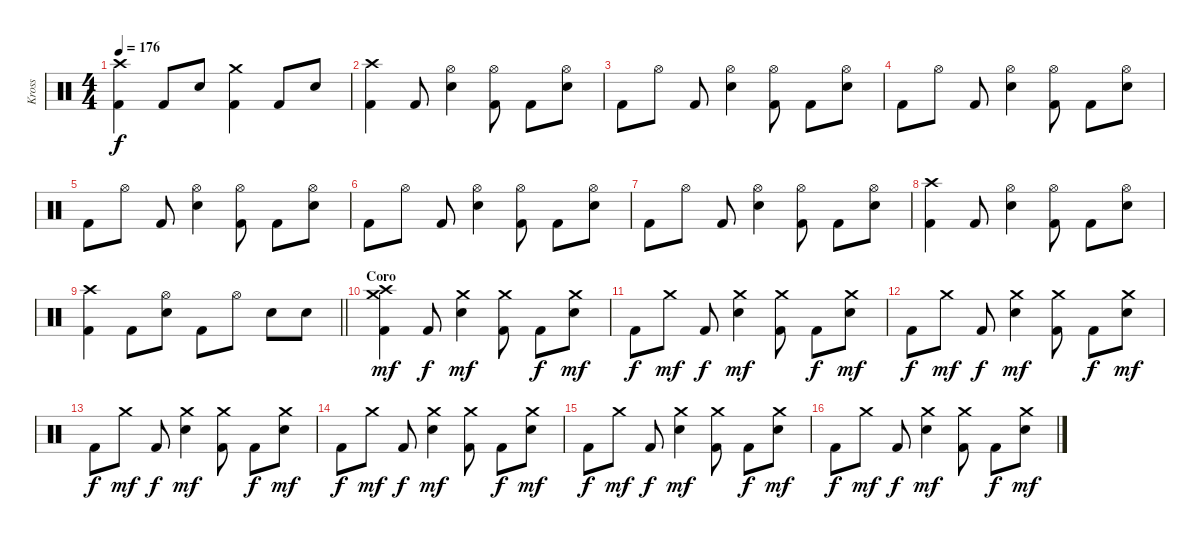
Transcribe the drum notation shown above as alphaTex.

\track ("Kross" "Kross") {instrument percussion}
\staff {score}
\articulation defaults
\ts (4 4)
\tempo 176
\clef neutral
\ks c
("Crash high (hit)" "Kick (hit) 2").4{dy f} "Kick (hit) 2".8 "Electric Snare (hit)".8 ("Crash medium (hit)" "Kick (hit) 2").4 "Kick (hit) 2".8 "Electric Snare (hit)".8 |
("Crash high (hit)" "Kick (hit) 2").4 "Kick (hit) 2".8 ("Hi-Hat (open)" "Electric Snare (hit)").4 ("Hi-Hat (open)" "Kick (hit) 2").8 "Kick (hit) 2".8 ("Hi-Hat (open)" "Electric Snare (hit)").8 |
"Kick (hit) 2".8 "Hi-Hat (open)".8 "Kick (hit) 2".8 ("Hi-Hat (open)" "Electric Snare (hit)").4 ("Hi-Hat (open)" "Kick (hit) 2").8 "Kick (hit) 2".8 ("Hi-Hat (open)" "Electric Snare (hit)").8 |
"Kick (hit) 2".8 "Hi-Hat (open)".8 "Kick (hit) 2".8 ("Hi-Hat (open)" "Electric Snare (hit)").4 ("Hi-Hat (open)" "Kick (hit) 2").8 "Kick (hit) 2".8 ("Hi-Hat (open)" "Electric Snare (hit)").8 |
"Kick (hit) 2".8 "Hi-Hat (open)".8 "Kick (hit) 2".8 ("Hi-Hat (open)" "Electric Snare (hit)").4 ("Hi-Hat (open)" "Kick (hit) 2").8 "Kick (hit) 2".8 ("Hi-Hat (open)" "Electric Snare (hit)").8 |
"Kick (hit) 2".8 "Hi-Hat (open)".8 "Kick (hit) 2".8 ("Hi-Hat (open)" "Electric Snare (hit)").4 ("Hi-Hat (open)" "Kick (hit) 2").8 "Kick (hit) 2".8 ("Hi-Hat (open)" "Electric Snare (hit)").8 |
"Kick (hit) 2".8 "Hi-Hat (open)".8 "Kick (hit) 2".8 ("Hi-Hat (open)" "Electric Snare (hit)").4 ("Hi-Hat (open)" "Kick (hit) 2").8 "Kick (hit) 2".8 ("Hi-Hat (open)" "Electric Snare (hit)").8 |
("Crash high (hit)" "Kick (hit) 2").4 "Kick (hit) 2".8 ("Hi-Hat (open)" "Electric Snare (hit)").4 ("Hi-Hat (open)" "Kick (hit) 2").8 "Kick (hit) 2".8 ("Hi-Hat (open)" "Electric Snare (hit)").8 |
\barLineRight lightlight
("Crash high (hit)" "Kick (hit) 2").4 "Kick (hit) 2".8 ("Hi-Hat (open)" "Electric Snare (hit)").8 "Kick (hit) 2".8 "Hi-Hat (open)".8 "Electric Snare (hit)".8 "Electric Snare (hit)".8 |
\section ("" "Coro")
("Crash medium (hit)" "Crash high (hit)" "Kick (hit) 2").4{dy mf} "Kick (hit) 2".8{dy f} ("Crash medium (hit)" "Electric Snare (hit)").4{dy mf} ("Crash medium (hit)" "Kick (hit) 2").8 "Kick (hit) 2".8{dy f} ("Crash medium (hit)" "Electric Snare (hit)").8{dy mf} |
"Kick (hit) 2".8{dy f} "Crash medium (hit)".8{dy mf} "Kick (hit) 2".8{dy f} ("Crash medium (hit)" "Electric Snare (hit)").4{dy mf} ("Crash medium (hit)" "Kick (hit) 2").8 "Kick (hit) 2".8{dy f} ("Crash medium (hit)" "Electric Snare (hit)").8{dy mf} |
"Kick (hit) 2".8{dy f} "Crash medium (hit)".8{dy mf} "Kick (hit) 2".8{dy f} ("Crash medium (hit)" "Electric Snare (hit)").4{dy mf} ("Crash medium (hit)" "Kick (hit) 2").8 "Kick (hit) 2".8{dy f} ("Crash medium (hit)" "Electric Snare (hit)").8{dy mf} |
"Kick (hit) 2".8{dy f} "Crash medium (hit)".8{dy mf} "Kick (hit) 2".8{dy f} ("Crash medium (hit)" "Electric Snare (hit)").4{dy mf} ("Crash medium (hit)" "Kick (hit) 2").8 "Kick (hit) 2".8{dy f} ("Crash medium (hit)" "Electric Snare (hit)").8{dy mf} |
"Kick (hit) 2".8{dy f} "Crash medium (hit)".8{dy mf} "Kick (hit) 2".8{dy f} ("Crash medium (hit)" "Electric Snare (hit)").4{dy mf} ("Crash medium (hit)" "Kick (hit) 2").8 "Kick (hit) 2".8{dy f} ("Crash medium (hit)" "Electric Snare (hit)").8{dy mf} |
"Kick (hit) 2".8{dy f} "Crash medium (hit)".8{dy mf} "Kick (hit) 2".8{dy f} ("Crash medium (hit)" "Electric Snare (hit)").4{dy mf} ("Crash medium (hit)" "Kick (hit) 2").8 "Kick (hit) 2".8{dy f} ("Crash medium (hit)" "Electric Snare (hit)").8{dy mf} |
"Kick (hit) 2".8{dy f} "Crash medium (hit)".8{dy mf} "Kick (hit) 2".8{dy f} ("Crash medium (hit)" "Electric Snare (hit)").4{dy mf} ("Crash medium (hit)" "Kick (hit) 2").8 "Kick (hit) 2".8{dy f} ("Crash medium (hit)" "Electric Snare (hit)").8{dy mf}
